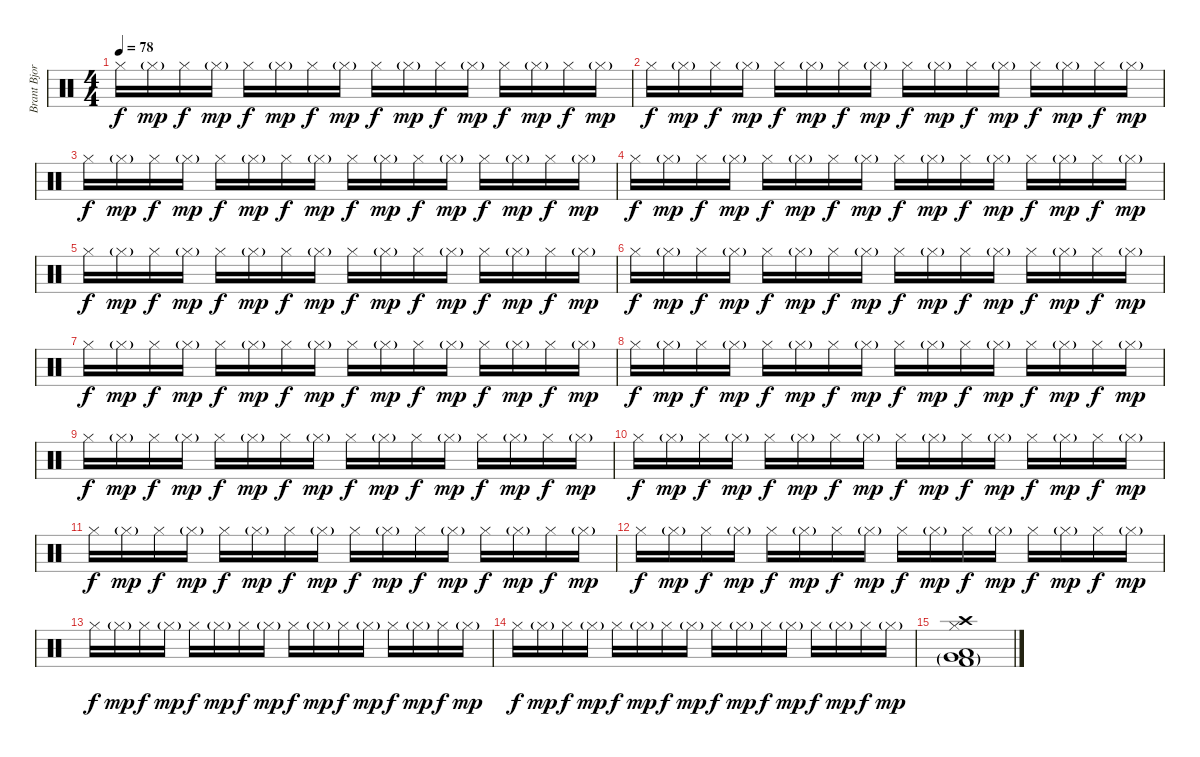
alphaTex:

\track ("Brant Bjork" "Brant Bjor") {instrument percussion}
\staff {score}
\articulation defaults
\ts (4 4)
\tempo 78
\clef neutral
\ks c "Hi-Hat (closed)".16{dy f} "Hi-Hat (closed)"{g}.16{dy mp} "Hi-Hat (closed)".16{dy f} "Hi-Hat (closed)"{g}.16{dy mp} "Hi-Hat (closed)".16{dy f} "Hi-Hat (closed)"{g}.16{dy mp} "Hi-Hat (closed)".16{dy f} "Hi-Hat (closed)"{g}.16{dy mp} "Hi-Hat (closed)".16{dy f} "Hi-Hat (closed)"{g}.16{dy mp} "Hi-Hat (closed)".16{dy f} "Hi-Hat (closed)"{g}.16{dy mp} "Hi-Hat (closed)".16{dy f} "Hi-Hat (closed)"{g}.16{dy mp} "Hi-Hat (closed)".16{dy f} "Hi-Hat (closed)"{g}.16{dy mp}
|
"Hi-Hat (closed)".16{dy f} "Hi-Hat (closed)"{g}.16{dy mp} "Hi-Hat (closed)".16{dy f} "Hi-Hat (closed)"{g}.16{dy mp} "Hi-Hat (closed)".16{dy f} "Hi-Hat (closed)"{g}.16{dy mp} "Hi-Hat (closed)".16{dy f} "Hi-Hat (closed)"{g}.16{dy mp} "Hi-Hat (closed)".16{dy f} "Hi-Hat (closed)"{g}.16{dy mp} "Hi-Hat (closed)".16{dy f} "Hi-Hat (closed)"{g}.16{dy mp} "Hi-Hat (closed)".16{dy f} "Hi-Hat (closed)"{g}.16{dy mp} "Hi-Hat (closed)".16{dy f} "Hi-Hat (closed)"{g}.16{dy mp} |
"Hi-Hat (closed)".16{dy f} "Hi-Hat (closed)"{g}.16{dy mp} "Hi-Hat (closed)".16{dy f} "Hi-Hat (closed)"{g}.16{dy mp} "Hi-Hat (closed)".16{dy f} "Hi-Hat (closed)"{g}.16{dy mp} "Hi-Hat (closed)".16{dy f} "Hi-Hat (closed)"{g}.16{dy mp} "Hi-Hat (closed)".16{dy f} "Hi-Hat (closed)"{g}.16{dy mp} "Hi-Hat (closed)".16{dy f} "Hi-Hat (closed)"{g}.16{dy mp} "Hi-Hat (closed)".16{dy f} "Hi-Hat (closed)"{g}.16{dy mp} "Hi-Hat (closed)".16{dy f} "Hi-Hat (closed)"{g}.16{dy mp} |
"Hi-Hat (closed)".16{dy f} "Hi-Hat (closed)"{g}.16{dy mp} "Hi-Hat (closed)".16{dy f} "Hi-Hat (closed)"{g}.16{dy mp} "Hi-Hat (closed)".16{dy f} "Hi-Hat (closed)"{g}.16{dy mp} "Hi-Hat (closed)".16{dy f} "Hi-Hat (closed)"{g}.16{dy mp} "Hi-Hat (closed)".16{dy f} "Hi-Hat (closed)"{g}.16{dy mp} "Hi-Hat (closed)".16{dy f} "Hi-Hat (closed)"{g}.16{dy mp} "Hi-Hat (closed)".16{dy f} "Hi-Hat (closed)"{g}.16{dy mp} "Hi-Hat (closed)".16{dy f} "Hi-Hat (closed)"{g}.16{dy mp} |
"Hi-Hat (closed)".16{dy f} "Hi-Hat (closed)"{g}.16{dy mp} "Hi-Hat (closed)".16{dy f} "Hi-Hat (closed)"{g}.16{dy mp} "Hi-Hat (closed)".16{dy f} "Hi-Hat (closed)"{g}.16{dy mp} "Hi-Hat (closed)".16{dy f} "Hi-Hat (closed)"{g}.16{dy mp} "Hi-Hat (closed)".16{dy f} "Hi-Hat (closed)"{g}.16{dy mp} "Hi-Hat (closed)".16{dy f} "Hi-Hat (closed)"{g}.16{dy mp} "Hi-Hat (closed)".16{dy f} "Hi-Hat (closed)"{g}.16{dy mp} "Hi-Hat (closed)".16{dy f} "Hi-Hat (closed)"{g}.16{dy mp} |
"Hi-Hat (closed)".16{dy f} "Hi-Hat (closed)"{g}.16{dy mp} "Hi-Hat (closed)".16{dy f} "Hi-Hat (closed)"{g}.16{dy mp} "Hi-Hat (closed)".16{dy f} "Hi-Hat (closed)"{g}.16{dy mp} "Hi-Hat (closed)".16{dy f} "Hi-Hat (closed)"{g}.16{dy mp} "Hi-Hat (closed)".16{dy f} "Hi-Hat (closed)"{g}.16{dy mp} "Hi-Hat (closed)".16{dy f} "Hi-Hat (closed)"{g}.16{dy mp} "Hi-Hat (closed)".16{dy f} "Hi-Hat (closed)"{g}.16{dy mp} "Hi-Hat (closed)".16{dy f} "Hi-Hat (closed)"{g}.16{dy mp} |
"Hi-Hat (closed)".16{dy f} "Hi-Hat (closed)"{g}.16{dy mp} "Hi-Hat (closed)".16{dy f} "Hi-Hat (closed)"{g}.16{dy mp} "Hi-Hat (closed)".16{dy f} "Hi-Hat (closed)"{g}.16{dy mp} "Hi-Hat (closed)".16{dy f} "Hi-Hat (closed)"{g}.16{dy mp} "Hi-Hat (closed)".16{dy f} "Hi-Hat (closed)"{g}.16{dy mp} "Hi-Hat (closed)".16{dy f} "Hi-Hat (closed)"{g}.16{dy mp} "Hi-Hat (closed)".16{dy f} "Hi-Hat (closed)"{g}.16{dy mp} "Hi-Hat (closed)".16{dy f} "Hi-Hat (closed)"{g}.16{dy mp} |
"Hi-Hat (closed)".16{dy f} "Hi-Hat (closed)"{g}.16{dy mp} "Hi-Hat (closed)".16{dy f} "Hi-Hat (closed)"{g}.16{dy mp} "Hi-Hat (closed)".16{dy f} "Hi-Hat (closed)"{g}.16{dy mp} "Hi-Hat (closed)".16{dy f} "Hi-Hat (closed)"{g}.16{dy mp} "Hi-Hat (closed)".16{dy f} "Hi-Hat (closed)"{g}.16{dy mp} "Hi-Hat (closed)".16{dy f} "Hi-Hat (closed)"{g}.16{dy mp} "Hi-Hat (closed)".16{dy f} "Hi-Hat (closed)"{g}.16{dy mp} "Hi-Hat (closed)".16{dy f} "Hi-Hat (closed)"{g}.16{dy mp} |
"Hi-Hat (closed)".16{dy f} "Hi-Hat (closed)"{g}.16{dy mp} "Hi-Hat (closed)".16{dy f} "Hi-Hat (closed)"{g}.16{dy mp} "Hi-Hat (closed)".16{dy f} "Hi-Hat (closed)"{g}.16{dy mp} "Hi-Hat (closed)".16{dy f} "Hi-Hat (closed)"{g}.16{dy mp} "Hi-Hat (closed)".16{dy f} "Hi-Hat (closed)"{g}.16{dy mp} "Hi-Hat (closed)".16{dy f} "Hi-Hat (closed)"{g}.16{dy mp} "Hi-Hat (closed)".16{dy f} "Hi-Hat (closed)"{g}.16{dy mp} "Hi-Hat (closed)".16{dy f} "Hi-Hat (closed)"{g}.16{dy mp} |
"Hi-Hat (closed)".16{dy f} "Hi-Hat (closed)"{g}.16{dy mp} "Hi-Hat (closed)".16{dy f} "Hi-Hat (closed)"{g}.16{dy mp} "Hi-Hat (closed)".16{dy f} "Hi-Hat (closed)"{g}.16{dy mp} "Hi-Hat (closed)".16{dy f} "Hi-Hat (closed)"{g}.16{dy mp} "Hi-Hat (closed)".16{dy f} "Hi-Hat (closed)"{g}.16{dy mp} "Hi-Hat (closed)".16{dy f} "Hi-Hat (closed)"{g}.16{dy mp} "Hi-Hat (closed)".16{dy f} "Hi-Hat (closed)"{g}.16{dy mp} "Hi-Hat (closed)".16{dy f} "Hi-Hat (closed)"{g}.16{dy mp} |
"Hi-Hat (closed)".16{dy f} "Hi-Hat (closed)"{g}.16{dy mp} "Hi-Hat (closed)".16{dy f} "Hi-Hat (closed)"{g}.16{dy mp} "Hi-Hat (closed)".16{dy f} "Hi-Hat (closed)"{g}.16{dy mp} "Hi-Hat (closed)".16{dy f} "Hi-Hat (closed)"{g}.16{dy mp} "Hi-Hat (closed)".16{dy f} "Hi-Hat (closed)"{g}.16{dy mp} "Hi-Hat (closed)".16{dy f} "Hi-Hat (closed)"{g}.16{dy mp} "Hi-Hat (closed)".16{dy f} "Hi-Hat (closed)"{g}.16{dy mp} "Hi-Hat (closed)".16{dy f} "Hi-Hat (closed)"{g}.16{dy mp} |
"Hi-Hat (closed)".16{dy f} "Hi-Hat (closed)"{g}.16{dy mp} "Hi-Hat (closed)".16{dy f} "Hi-Hat (closed)"{g}.16{dy mp} "Hi-Hat (closed)".16{dy f} "Hi-Hat (closed)"{g}.16{dy mp} "Hi-Hat (closed)".16{dy f} "Hi-Hat (closed)"{g}.16{dy mp} "Hi-Hat (closed)".16{dy f} "Hi-Hat (closed)"{g}.16{dy mp} "Hi-Hat (closed)".16{dy f} "Hi-Hat (closed)"{g}.16{dy mp} "Hi-Hat (closed)".16{dy f} "Hi-Hat (closed)"{g}.16{dy mp} "Hi-Hat (closed)".16{dy f} "Hi-Hat (closed)"{g}.16{dy mp} |
"Hi-Hat (closed)".16{dy f} "Hi-Hat (closed)"{g}.16{dy mp} "Hi-Hat (closed)".16{dy f} "Hi-Hat (closed)"{g}.16{dy mp} "Hi-Hat (closed)".16{dy f} "Hi-Hat (closed)"{g}.16{dy mp} "Hi-Hat (closed)".16{dy f} "Hi-Hat (closed)"{g}.16{dy mp} "Hi-Hat (closed)".16{dy f} "Hi-Hat (closed)"{g}.16{dy mp} "Hi-Hat (closed)".16{dy f} "Hi-Hat (closed)"{g}.16{dy mp} "Hi-Hat (closed)".16{dy f} "Hi-Hat (closed)"{g}.16{dy mp} "Hi-Hat (closed)".16{dy f} "Hi-Hat (closed)"{g}.16{dy mp} |
"Hi-Hat (closed)".16{dy f} "Hi-Hat (closed)"{g}.16{dy mp} "Hi-Hat (closed)".16{dy f} "Hi-Hat (closed)"{g}.16{dy mp} "Hi-Hat (closed)".16{dy f} "Hi-Hat (closed)"{g}.16{dy mp} "Hi-Hat (closed)".16{dy f} "Hi-Hat (closed)"{g}.16{dy mp} "Hi-Hat (closed)".16{dy f} "Hi-Hat (closed)"{g}.16{dy mp} "Hi-Hat (closed)".16{dy f} "Hi-Hat (closed)"{g}.16{dy mp} "Hi-Hat (closed)".16{dy f} "Hi-Hat (closed)"{g}.16{dy mp} "Hi-Hat (closed)".16{dy f} "Hi-Hat (closed)"{g}.16{dy mp} |
("Crash high (hit)" "Very Low Tom (hit)"{g} "Low Tom (hit)" "Kick (hit) 2"{g} "Hi-Hat (closed)").1
